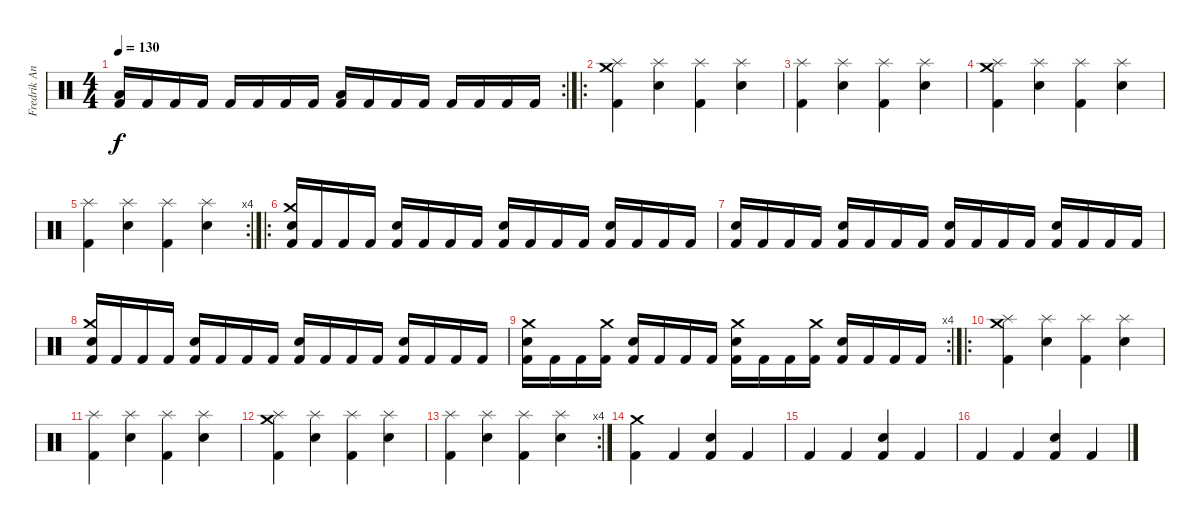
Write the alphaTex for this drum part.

\track ("Fredrik Andersson" "Fredrik An") {instrument percussion}
\staff {score}
\articulation defaults
\rc 2
\ts (4 4)
\tempo 130
\clef neutral
\ks c
("Low Floor Tom (hit)" "Kick (hit) 2").16{dy f} "Kick (hit) 2".16 "Kick (hit) 2".16 "Kick (hit) 2".16 "Kick (hit) 2".16 "Kick (hit) 2".16 "Kick (hit) 2".16 "Kick (hit) 2".16 ("Low Floor Tom (hit)" "Kick (hit) 2").16 "Kick (hit) 2".16 "Kick (hit) 2".16 "Kick (hit) 2".16 "Kick (hit) 2".16 "Kick (hit) 2".16 "Kick (hit) 2".16 "Kick (hit) 2".16 |
\ro
("Crash medium (hit)" "Splash (hit)" "Kick (hit) 2").4 ("Splash (hit)" "Electric Snare (hit)").4 ("Splash (hit)" "Kick (hit) 2").4 ("Splash (hit)" "Electric Snare (hit)").4 |
("Splash (hit)" "Kick (hit) 2").4 ("Splash (hit)" "Electric Snare (hit)").4 ("Splash (hit)" "Kick (hit) 2").4 ("Splash (hit)" "Electric Snare (hit)").4 |
("Crash medium (hit)" "Splash (hit)" "Kick (hit) 2").4 ("Splash (hit)" "Electric Snare (hit)").4 ("Splash (hit)" "Kick (hit) 2").4 ("Splash (hit)" "Electric Snare (hit)").4 |
\rc 4
("Splash (hit)" "Kick (hit) 2").4 ("Splash (hit)" "Electric Snare (hit)").4 ("Splash (hit)" "Kick (hit) 2").4 ("Splash (hit)" "Electric Snare (hit)").4 |
\ro
("Crash medium (hit)" "Electric Snare (hit)" "Kick (hit) 2").16 "Kick (hit) 2".16 "Kick (hit) 2".16 "Kick (hit) 2".16 ("Electric Snare (hit)" "Kick (hit) 2").16 "Kick (hit) 2".16 "Kick (hit) 2".16 "Kick (hit) 2".16 ("Electric Snare (hit)" "Kick (hit) 2").16 "Kick (hit) 2".16 "Kick (hit) 2".16 "Kick (hit) 2".16 ("Electric Snare (hit)" "Kick (hit) 2").16 "Kick (hit) 2".16 "Kick (hit) 2".16 "Kick (hit) 2".16 |
("Electric Snare (hit)" "Kick (hit) 2").16 "Kick (hit) 2".16 "Kick (hit) 2".16 "Kick (hit) 2".16 ("Electric Snare (hit)" "Kick (hit) 2").16 "Kick (hit) 2".16 "Kick (hit) 2".16 "Kick (hit) 2".16 ("Electric Snare (hit)" "Kick (hit) 2").16 "Kick (hit) 2".16 "Kick (hit) 2".16 "Kick (hit) 2".16 ("Electric Snare (hit)" "Kick (hit) 2").16 "Kick (hit) 2".16 "Kick (hit) 2".16 "Kick (hit) 2".16 |
("Crash medium (hit)" "Electric Snare (hit)" "Kick (hit) 2").16 "Kick (hit) 2".16 "Kick (hit) 2".16 "Kick (hit) 2".16 ("Electric Snare (hit)" "Kick (hit) 2").16 "Kick (hit) 2".16 "Kick (hit) 2".16 "Kick (hit) 2".16 ("Electric Snare (hit)" "Kick (hit) 2").16 "Kick (hit) 2".16 "Kick (hit) 2".16 "Kick (hit) 2".16 ("Electric Snare (hit)" "Kick (hit) 2").16 "Kick (hit) 2".16 "Kick (hit) 2".16 "Kick (hit) 2".16 |
\rc 4
("Crash medium (hit)" "Electric Snare (hit)" "Kick (hit) 2").16 "Kick (hit) 2".16 "Kick (hit) 2".16 ("Crash medium (hit)" "Kick (hit) 2").16 ("Electric Snare (hit)" "Kick (hit) 2").16 "Kick (hit) 2".16 "Kick (hit) 2".16 "Kick (hit) 2".16 ("Crash medium (hit)" "Electric Snare (hit)" "Kick (hit) 2").16 "Kick (hit) 2".16 "Kick (hit) 2".16 ("Crash medium (hit)" "Kick (hit) 2").16 ("Electric Snare (hit)" "Kick (hit) 2").16 "Kick (hit) 2".16 "Kick (hit) 2".16 "Kick (hit) 2".16 |
\ro
("Crash medium (hit)" "Splash (hit)" "Kick (hit) 2").4 ("Splash (hit)" "Electric Snare (hit)").4 ("Splash (hit)" "Kick (hit) 2").4 ("Splash (hit)" "Electric Snare (hit)").4 |
("Splash (hit)" "Kick (hit) 2").4 ("Splash (hit)" "Electric Snare (hit)").4 ("Splash (hit)" "Kick (hit) 2").4 ("Splash (hit)" "Electric Snare (hit)").4 |
("Crash medium (hit)" "Splash (hit)" "Kick (hit) 2").4 ("Splash (hit)" "Electric Snare (hit)").4 ("Splash (hit)" "Kick (hit) 2").4 ("Splash (hit)" "Electric Snare (hit)").4 |
\rc 4
("Splash (hit)" "Kick (hit) 2").4 ("Splash (hit)" "Electric Snare (hit)").4 ("Splash (hit)" "Kick (hit) 2").4 ("Splash (hit)" "Electric Snare (hit)").4 |
("Crash medium (hit)" "Kick (hit) 2").4 "Kick (hit) 2".4 ("Electric Snare (hit)" "Kick (hit) 2").4 "Kick (hit) 2".4 |
"Kick (hit) 2".4 "Kick (hit) 2".4 ("Electric Snare (hit)" "Kick (hit) 2").4 "Kick (hit) 2".4 |
"Kick (hit) 2".4 "Kick (hit) 2".4 ("Electric Snare (hit)" "Kick (hit) 2").4 "Kick (hit) 2".4
